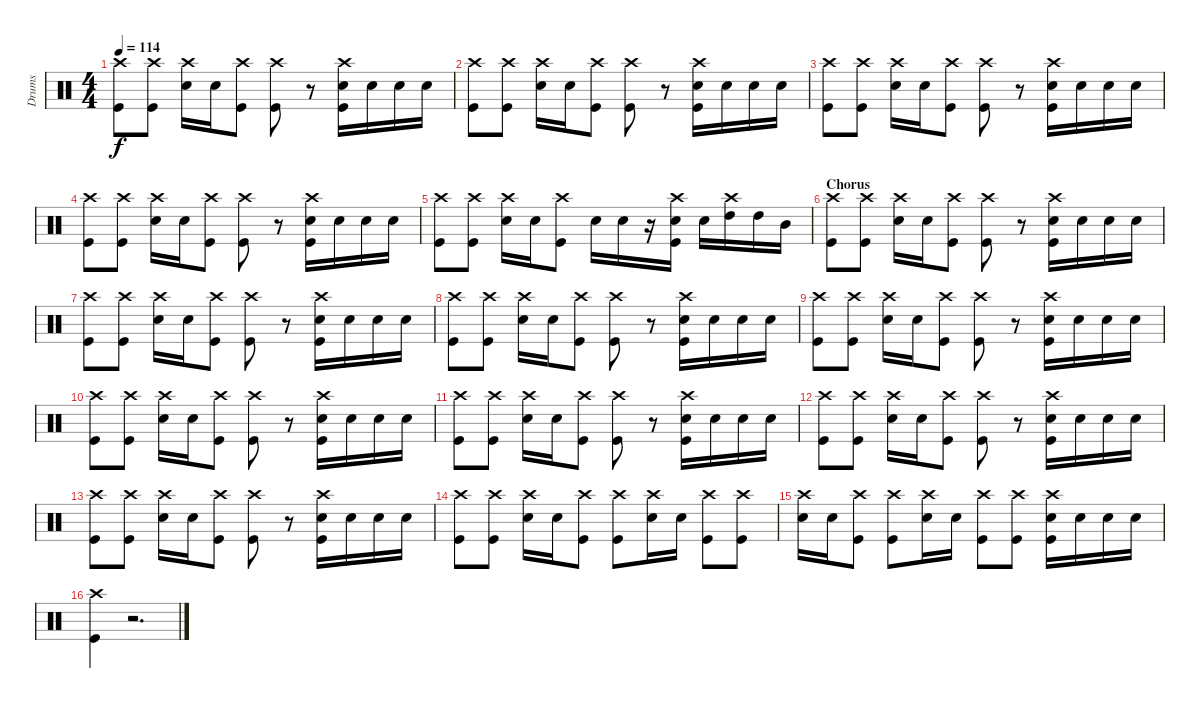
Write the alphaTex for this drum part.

\track ("Drums" "Drums") {instrument percussion}
\staff {score}
\articulation defaults
\ts (4 4)
\tempo 114
\clef neutral
\ks c
("Crash high (hit)" "Kick (hit)").8{dy f} ("Crash high (hit)" "Kick (hit)").8 ("Crash high (hit)" "Electric Snare (hit)").16 "Electric Snare (hit)".16 ("Crash high (hit)" "Kick (hit)").8 ("Crash high (hit)" "Kick (hit)").8 r.8 ("Crash high (hit)" "Electric Snare (hit)" "Kick (hit)").16 "Electric Snare (hit)".16 "Electric Snare (hit)".16 "Electric Snare (hit)".16 |
("Crash high (hit)" "Kick (hit)").8 ("Crash high (hit)" "Kick (hit)").8 ("Crash high (hit)" "Electric Snare (hit)").16 "Electric Snare (hit)".16 ("Crash high (hit)" "Kick (hit)").8 ("Crash high (hit)" "Kick (hit)").8 r.8 ("Crash high (hit)" "Electric Snare (hit)" "Kick (hit)").16 "Electric Snare (hit)".16 "Electric Snare (hit)".16 "Electric Snare (hit)".16 |
("Crash high (hit)" "Kick (hit)").8 ("Crash high (hit)" "Kick (hit)").8 ("Crash high (hit)" "Electric Snare (hit)").16 "Electric Snare (hit)".16 ("Crash high (hit)" "Kick (hit)").8 ("Crash high (hit)" "Kick (hit)").8 r.8 ("Crash high (hit)" "Electric Snare (hit)" "Kick (hit)").16 "Electric Snare (hit)".16 "Electric Snare (hit)".16 "Electric Snare (hit)".16 |
("Crash high (hit)" "Kick (hit)").8 ("Crash high (hit)" "Kick (hit)").8 ("Crash high (hit)" "Electric Snare (hit)").16 "Electric Snare (hit)".16 ("Crash high (hit)" "Kick (hit)").8 ("Crash high (hit)" "Kick (hit)").8 r.8 ("Crash high (hit)" "Electric Snare (hit)" "Kick (hit)").16 "Electric Snare (hit)".16 "Electric Snare (hit)".16 "Electric Snare (hit)".16 |
("Crash high (hit)" "Kick (hit)").8 ("Crash high (hit)" "Kick (hit)").8 ("Crash high (hit)" "Electric Snare (hit)").16 "Electric Snare (hit)".16 ("Crash high (hit)" "Kick (hit)").8 "Electric Snare (hit)".16 "Electric Snare (hit)".16 r.16 ("Crash high (hit)" "Electric Snare (hit)" "Kick (hit)").16 "Electric Snare (hit)".16 ("Crash high (hit)" "High Tom (hit)").16 "High Tom (hit)".16 "Mid Tom (hit)".16 |
\section ("" "Chorus")
("Crash high (hit)" "Kick (hit)").8 ("Crash high (hit)" "Kick (hit)").8 ("Crash high (hit)" "Electric Snare (hit)").16 "Electric Snare (hit)".16 ("Crash high (hit)" "Kick (hit)").8 ("Crash high (hit)" "Kick (hit)").8 r.8 ("Crash high (hit)" "Electric Snare (hit)" "Kick (hit)").16 "Electric Snare (hit)".16 "Electric Snare (hit)".16 "Electric Snare (hit)".16 |
("Crash high (hit)" "Kick (hit)").8 ("Crash high (hit)" "Kick (hit)").8 ("Crash high (hit)" "Electric Snare (hit)").16 "Electric Snare (hit)".16 ("Crash high (hit)" "Kick (hit)").8 ("Crash high (hit)" "Kick (hit)").8 r.8 ("Crash high (hit)" "Electric Snare (hit)" "Kick (hit)").16 "Electric Snare (hit)".16 "Electric Snare (hit)".16 "Electric Snare (hit)".16 |
("Crash high (hit)" "Kick (hit)").8 ("Crash high (hit)" "Kick (hit)").8 ("Crash high (hit)" "Electric Snare (hit)").16 "Electric Snare (hit)".16 ("Crash high (hit)" "Kick (hit)").8 ("Crash high (hit)" "Kick (hit)").8 r.8 ("Crash high (hit)" "Electric Snare (hit)" "Kick (hit)").16 "Electric Snare (hit)".16 "Electric Snare (hit)".16 "Electric Snare (hit)".16 |
("Crash high (hit)" "Kick (hit)").8 ("Crash high (hit)" "Kick (hit)").8 ("Crash high (hit)" "Electric Snare (hit)").16 "Electric Snare (hit)".16 ("Crash high (hit)" "Kick (hit)").8 ("Crash high (hit)" "Kick (hit)").8 r.8 ("Crash high (hit)" "Electric Snare (hit)" "Kick (hit)").16 "Electric Snare (hit)".16 "Electric Snare (hit)".16 "Electric Snare (hit)".16 |
("Crash high (hit)" "Kick (hit)").8 ("Crash high (hit)" "Kick (hit)").8 ("Crash high (hit)" "Electric Snare (hit)").16 "Electric Snare (hit)".16 ("Crash high (hit)" "Kick (hit)").8 ("Crash high (hit)" "Kick (hit)").8 r.8 ("Crash high (hit)" "Electric Snare (hit)" "Kick (hit)").16 "Electric Snare (hit)".16 "Electric Snare (hit)".16 "Electric Snare (hit)".16 |
("Crash high (hit)" "Kick (hit)").8 ("Crash high (hit)" "Kick (hit)").8 ("Crash high (hit)" "Electric Snare (hit)").16 "Electric Snare (hit)".16 ("Crash high (hit)" "Kick (hit)").8 ("Crash high (hit)" "Kick (hit)").8 r.8 ("Crash high (hit)" "Electric Snare (hit)" "Kick (hit)").16 "Electric Snare (hit)".16 "Electric Snare (hit)".16 "Electric Snare (hit)".16 |
("Crash high (hit)" "Kick (hit)").8 ("Crash high (hit)" "Kick (hit)").8 ("Crash high (hit)" "Electric Snare (hit)").16 "Electric Snare (hit)".16 ("Crash high (hit)" "Kick (hit)").8 ("Crash high (hit)" "Kick (hit)").8 r.8 ("Crash high (hit)" "Electric Snare (hit)" "Kick (hit)").16 "Electric Snare (hit)".16 "Electric Snare (hit)".16 "Electric Snare (hit)".16 |
("Crash high (hit)" "Kick (hit)").8 ("Crash high (hit)" "Kick (hit)").8 ("Crash high (hit)" "Electric Snare (hit)").16 "Electric Snare (hit)".16 ("Crash high (hit)" "Kick (hit)").8 ("Crash high (hit)" "Kick (hit)").8 r.8 ("Crash high (hit)" "Electric Snare (hit)" "Kick (hit)").16 "Electric Snare (hit)".16 "Electric Snare (hit)".16 "Electric Snare (hit)".16 |
("Crash high (hit)" "Kick (hit)").8 ("Crash high (hit)" "Kick (hit)").8 ("Crash high (hit)" "Electric Snare (hit)").16 "Electric Snare (hit)".16 ("Crash high (hit)" "Kick (hit)").8 ("Crash high (hit)" "Kick (hit)").8 ("Crash high (hit)" "Electric Snare (hit)").16 "Electric Snare (hit)".16 ("Crash high (hit)" "Kick (hit)").8 ("Crash high (hit)" "Kick (hit)").8 |
("Crash high (hit)" "Electric Snare (hit)").16 "Electric Snare (hit)".16 ("Crash high (hit)" "Kick (hit)").8 ("Crash high (hit)" "Kick (hit)").8 ("Crash high (hit)" "Electric Snare (hit)").16 "Electric Snare (hit)".16 ("Crash high (hit)" "Kick (hit)").8 ("Crash high (hit)" "Kick (hit)").8 ("Crash high (hit)" "Electric Snare (hit)" "Kick (hit)").16 "Electric Snare (hit)".16 "Electric Snare (hit)".16 "Electric Snare (hit)".16 |
("Crash high (hit)" "Kick (hit)").4 r.2{d}
